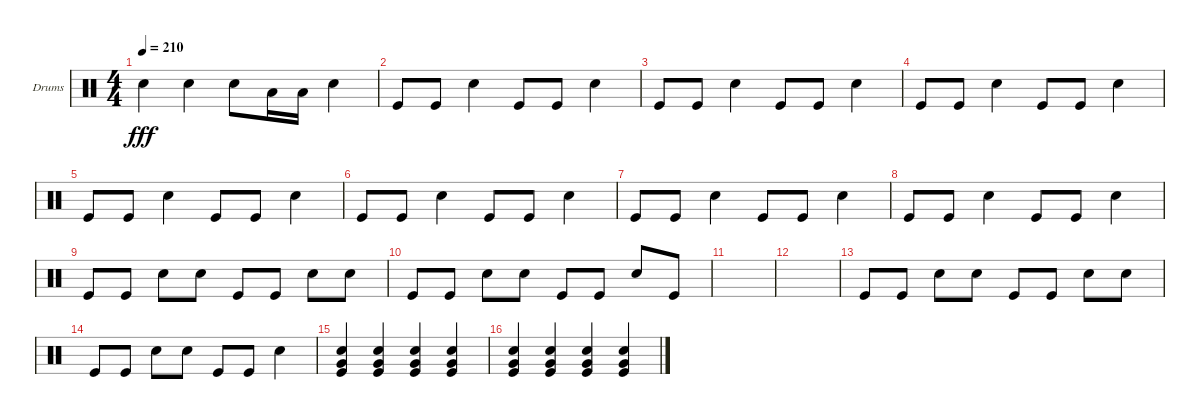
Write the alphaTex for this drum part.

\defaultSystemsLayout 4
\bracketExtendMode groupsimilarinstruments
\firstSystemTrackNameOrientation horizontal
\otherSystemsTrackNameOrientation horizontal
\track ("Helders" "Drums") {instrument percussion}
\staff {score}
\articulation defaults
\ts (4 4)
\tempo 210
\clef neutral
\ks c "Snare (hit) 2".4{dy fff} "Snare (hit) 2".4 "Snare (hit) 2".8 "Low Tom (hit)".16 "Low Tom (hit)".16 "Snare (hit) 2".4
|
"Kick (hit)".8 "Kick (hit)".8 "Snare (hit) 2".4 "Kick (hit)".8 "Kick (hit)".8 "Snare (hit) 2".4 |
"Kick (hit)".8 "Kick (hit)".8 "Snare (hit) 2".4 "Kick (hit)".8 "Kick (hit)".8 "Snare (hit) 2".4 |
"Kick (hit)".8 "Kick (hit)".8 "Snare (hit) 2".4 "Kick (hit)".8 "Kick (hit)".8 "Snare (hit) 2".4 |
"Kick (hit)".8 "Kick (hit)".8 "Snare (hit) 2".4 "Kick (hit)".8 "Kick (hit)".8 "Snare (hit) 2".4 |
"Kick (hit)".8 "Kick (hit)".8 "Snare (hit) 2".4 "Kick (hit)".8 "Kick (hit)".8 "Snare (hit) 2".4 |
"Kick (hit)".8 "Kick (hit)".8 "Snare (hit) 2".4 "Kick (hit)".8 "Kick (hit)".8 "Snare (hit) 2".4 |
"Kick (hit)".8 "Kick (hit)".8 "Snare (hit) 2".4 "Kick (hit)".8 "Kick (hit)".8 "Snare (hit) 2".4 |
"Kick (hit)".8 "Kick (hit)".8 "Snare (hit) 2".8 "Snare (hit) 2".8 "Kick (hit)".8 "Kick (hit)".8 "Snare (hit) 2".8 "Snare (hit) 2".8 |
"Kick (hit)".8 "Kick (hit)".8 "Snare (hit) 2".8 "Snare (hit) 2".8 "Kick (hit)".8 "Kick (hit)".8 "Snare (hit) 2".8 "Kick (hit)".8 |
|
|
"Kick (hit)".8 "Kick (hit)".8 "Snare (hit) 2".8 "Snare (hit) 2".8 "Kick (hit)".8 "Kick (hit)".8 "Snare (hit) 2".8 "Snare (hit) 2".8 |
"Kick (hit)".8 "Kick (hit)".8 "Snare (hit) 2".8 "Snare (hit) 2".8 "Kick (hit)".8 "Kick (hit)".8 "Snare (hit) 2".4 |
("Snare (hit) 2" "Kick (hit)" "Very Low Tom (hit)").4 ("Snare (hit) 2" "Kick (hit)" "Very Low Tom (hit)").4 ("Snare (hit) 2" "Kick (hit)" "Very Low Tom (hit)").4 ("Snare (hit) 2" "Kick (hit)" "Very Low Tom (hit)").4 |
("Snare (hit) 2" "Kick (hit)" "Very Low Tom (hit)").4 ("Snare (hit) 2" "Kick (hit)" "Very Low Tom (hit)").4 ("Snare (hit) 2" "Kick (hit)" "Very Low Tom (hit)").4 ("Snare (hit) 2" "Kick (hit)" "Very Low Tom (hit)").4
